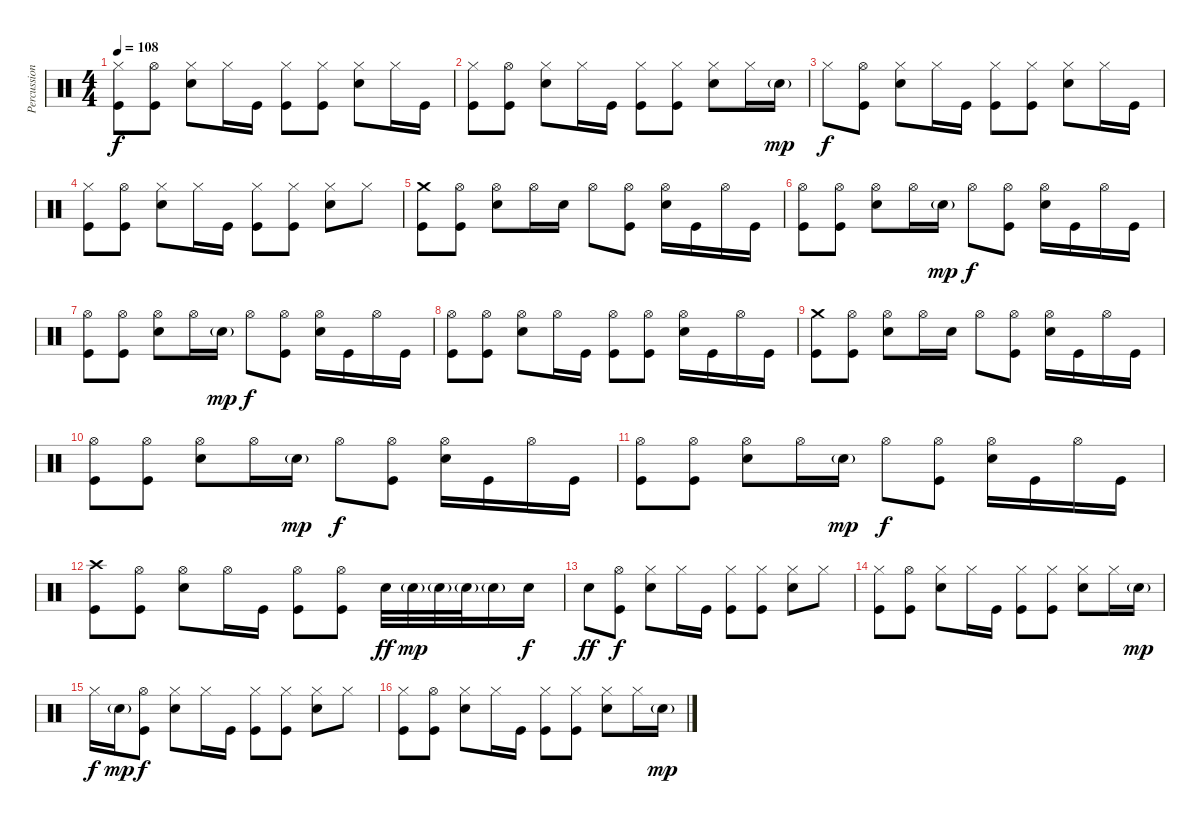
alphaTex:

\track ("Percussion" "Percussion") {instrument percussion}
\staff {score}
\articulation defaults
\ts (4 4)
\tempo 108
\clef neutral
\ks c
("Hi-Hat (closed)" "Kick (hit)").8{dy f} ("Hi-Hat (open)" "Kick (hit)").8 ("Hi-Hat (closed)" "Electric Snare (hit)").8 "Hi-Hat (closed)".16 "Kick (hit)".16 ("Hi-Hat (closed)" "Kick (hit)").8 ("Hi-Hat (closed)" "Kick (hit)").8 ("Hi-Hat (closed)" "Electric Snare (hit)").8 "Hi-Hat (closed)".16 "Kick (hit)".16 |
("Hi-Hat (closed)" "Kick (hit)").8 ("Hi-Hat (open)" "Kick (hit)").8 ("Hi-Hat (closed)" "Electric Snare (hit)").8 "Hi-Hat (closed)".16 "Kick (hit)".16 ("Hi-Hat (closed)" "Kick (hit)").8 ("Hi-Hat (closed)" "Kick (hit)").8 ("Hi-Hat (closed)" "Electric Snare (hit)").8 "Hi-Hat (closed)".16 "Electric Snare (hit)"{g}.16{dy mp} |
"Hi-Hat (closed)".8{dy f} ("Hi-Hat (open)" "Kick (hit)").8 ("Hi-Hat (closed)" "Electric Snare (hit)").8 "Hi-Hat (closed)".16 "Kick (hit)".16 ("Hi-Hat (closed)" "Kick (hit)").8 ("Hi-Hat (closed)" "Kick (hit)").8 ("Hi-Hat (closed)" "Electric Snare (hit)").8 "Hi-Hat (closed)".16 "Kick (hit)".16 |
("Hi-Hat (closed)" "Kick (hit)").8 ("Hi-Hat (open)" "Kick (hit)").8 ("Hi-Hat (closed)" "Electric Snare (hit)").8 "Hi-Hat (closed)".16 "Kick (hit)".16 ("Hi-Hat (closed)" "Kick (hit)").8 ("Hi-Hat (closed)" "Kick (hit)").8 ("Hi-Hat (closed)" "Electric Snare (hit)").8 "Hi-Hat (closed)".8 |
("Crash medium (hit)" "Kick (hit)").8 ("Hi-Hat (open)" "Kick (hit)").8 ("Hi-Hat (open)" "Electric Snare (hit)").8 "Hi-Hat (open)".16 "Electric Snare (hit)".16 "Hi-Hat (open)".8 ("Hi-Hat (open)" "Kick (hit)").8 ("Hi-Hat (open)" "Electric Snare (hit)").16 "Kick (hit)".16 "Hi-Hat (open)".16 "Kick (hit)".16 |
("Hi-Hat (open)" "Kick (hit)").8 ("Hi-Hat (open)" "Kick (hit)").8 ("Hi-Hat (open)" "Electric Snare (hit)").8 "Hi-Hat (open)".16 "Electric Snare (hit)"{g}.16{dy mp} "Hi-Hat (open)".8{dy f} ("Hi-Hat (open)" "Kick (hit)").8 ("Hi-Hat (open)" "Electric Snare (hit)").16 "Kick (hit)".16 "Hi-Hat (open)".16 "Kick (hit)".16 |
("Hi-Hat (open)" "Kick (hit)").8 ("Hi-Hat (open)" "Kick (hit)").8 ("Hi-Hat (open)" "Electric Snare (hit)").8 "Hi-Hat (open)".16 "Electric Snare (hit)"{g}.16{dy mp} "Hi-Hat (open)".8{dy f} ("Hi-Hat (open)" "Kick (hit)").8 ("Hi-Hat (open)" "Electric Snare (hit)").16 "Kick (hit)".16 "Hi-Hat (open)".16 "Kick (hit)".16 |
("Hi-Hat (open)" "Kick (hit)").8 ("Hi-Hat (open)" "Kick (hit)").8 ("Hi-Hat (open)" "Electric Snare (hit)").8 "Hi-Hat (open)".16 "Kick (hit)".16 ("Hi-Hat (open)" "Kick (hit)").8 ("Hi-Hat (open)" "Kick (hit)").8 ("Hi-Hat (open)" "Electric Snare (hit)").16 "Kick (hit)".16 "Hi-Hat (open)".16 "Kick (hit)".16 |
("Crash medium (hit)" "Kick (hit)").8 ("Hi-Hat (open)" "Kick (hit)").8 ("Hi-Hat (open)" "Electric Snare (hit)").8 "Hi-Hat (open)".16 "Electric Snare (hit)".16 "Hi-Hat (open)".8 ("Hi-Hat (open)" "Kick (hit)").8 ("Hi-Hat (open)" "Electric Snare (hit)").16 "Kick (hit)".16 "Hi-Hat (open)".16 "Kick (hit)".16 |
("Hi-Hat (open)" "Kick (hit)").8 ("Hi-Hat (open)" "Kick (hit)").8 ("Hi-Hat (open)" "Electric Snare (hit)").8 "Hi-Hat (open)".16 "Electric Snare (hit)"{g}.16{dy mp} "Hi-Hat (open)".8{dy f} ("Hi-Hat (open)" "Kick (hit)").8 ("Hi-Hat (open)" "Electric Snare (hit)").16 "Kick (hit)".16 "Hi-Hat (open)".16 "Kick (hit)".16 |
("Hi-Hat (open)" "Kick (hit)").8 ("Hi-Hat (open)" "Kick (hit)").8 ("Hi-Hat (open)" "Electric Snare (hit)").8 "Hi-Hat (open)".16 "Electric Snare (hit)"{g}.16{dy mp} "Hi-Hat (open)".8{dy f} ("Hi-Hat (open)" "Kick (hit)").8 ("Hi-Hat (open)" "Electric Snare (hit)").16 "Kick (hit)".16 "Hi-Hat (open)".16 "Kick (hit)".16 |
("Crash high (hit)" "Kick (hit)").8 ("Hi-Hat (open)" "Kick (hit)").8 ("Hi-Hat (open)" "Electric Snare (hit)").8 "Hi-Hat (open)".16 "Kick (hit)".16 ("Hi-Hat (open)" "Kick (hit)").8 ("Hi-Hat (open)" "Kick (hit)").8 "Electric Snare (hit)".32{dy ff} "Electric Snare (hit)"{g}.32{dy mp} "Electric Snare (hit)"{g}.32 "Electric Snare (hit)"{g}.32 "Electric Snare (hit)"{g}.16 "Electric Snare (hit)".16{dy f} |
"Electric Snare (hit)".8{dy ff} ("Hi-Hat (open)" "Kick (hit)").8{dy f} ("Hi-Hat (closed)" "Electric Snare (hit)").8 "Hi-Hat (closed)".16 "Kick (hit)".16 ("Hi-Hat (closed)" "Kick (hit)").8 ("Hi-Hat (closed)" "Kick (hit)").8 ("Hi-Hat (closed)" "Electric Snare (hit)").8 "Hi-Hat (closed)".8 |
("Hi-Hat (closed)" "Kick (hit)").8 ("Hi-Hat (open)" "Kick (hit)").8 ("Hi-Hat (closed)" "Electric Snare (hit)").8 "Hi-Hat (closed)".16 "Kick (hit)".16 ("Hi-Hat (closed)" "Kick (hit)").8 ("Hi-Hat (closed)" "Kick (hit)").8 ("Hi-Hat (closed)" "Electric Snare (hit)").8 "Hi-Hat (closed)".16 "Electric Snare (hit)"{g}.16{dy mp} |
"Hi-Hat (closed)".16{dy f} "Electric Snare (hit)"{g}.16{dy mp} ("Hi-Hat (open)" "Kick (hit)").8{dy f} ("Hi-Hat (closed)" "Electric Snare (hit)").8 "Hi-Hat (closed)".16 "Kick (hit)".16 ("Hi-Hat (closed)" "Kick (hit)").8 ("Hi-Hat (closed)" "Kick (hit)").8 ("Hi-Hat (closed)" "Electric Snare (hit)").8 "Hi-Hat (closed)".8 |
("Hi-Hat (closed)" "Kick (hit)").8 ("Hi-Hat (open)" "Kick (hit)").8 ("Hi-Hat (closed)" "Electric Snare (hit)").8 "Hi-Hat (closed)".16 "Kick (hit)".16 ("Hi-Hat (closed)" "Kick (hit)").8 ("Hi-Hat (closed)" "Kick (hit)").8 ("Hi-Hat (closed)" "Electric Snare (hit)").8 "Hi-Hat (closed)".16 "Electric Snare (hit)"{g}.16{dy mp}
